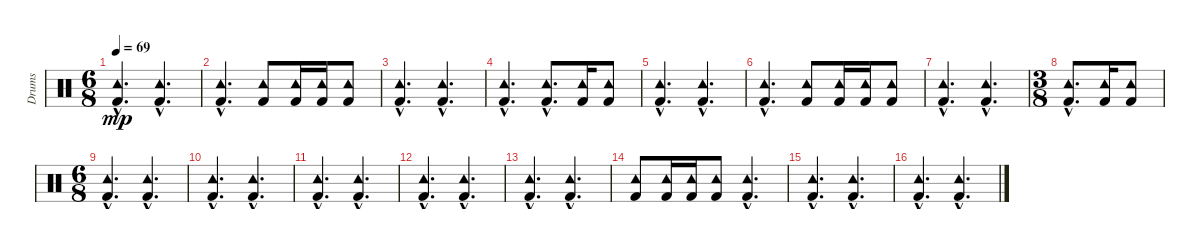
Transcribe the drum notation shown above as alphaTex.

\track ("Drums" "Drums") {instrument percussion}
\staff {score}
\articulation defaults
\ts (6 8)
\tempo 69
\clef neutral
\ks c
("Tambourine (hit)"{hac} "Kick (hit) 2"{hac}).4{d dy mp} ("Tambourine (hit)"{hac} "Kick (hit) 2"{hac}).4{d} |
("Tambourine (hit)"{hac} "Kick (hit) 2"{hac}).4{d} ("Tambourine (hit)" "Kick (hit) 2").8 ("Tambourine (hit)" "Kick (hit) 2").16 ("Tambourine (hit)" "Kick (hit) 2").16 ("Tambourine (hit)" "Kick (hit) 2").8 |
("Tambourine (hit)"{hac} "Kick (hit) 2"{hac}).4{d} ("Tambourine (hit)"{hac} "Kick (hit) 2"{hac}).4{d} |
("Tambourine (hit)"{hac} "Kick (hit) 2"{hac}).4{d} ("Tambourine (hit)"{hac} "Kick (hit) 2"{hac}).8{d} ("Tambourine (hit)" "Kick (hit) 2").16 ("Tambourine (hit)" "Kick (hit) 2").8 |
("Tambourine (hit)"{hac} "Kick (hit) 2"{hac}).4{d} ("Tambourine (hit)"{hac} "Kick (hit) 2"{hac}).4{d} |
("Tambourine (hit)"{hac} "Kick (hit) 2"{hac}).4{d} ("Tambourine (hit)" "Kick (hit) 2").8 ("Tambourine (hit)" "Kick (hit) 2").16 ("Tambourine (hit)" "Kick (hit) 2").16 ("Tambourine (hit)" "Kick (hit) 2").8 |
("Tambourine (hit)"{hac} "Kick (hit) 2"{hac}).4{d} ("Tambourine (hit)"{hac} "Kick (hit) 2"{hac}).4{d} |
\ts (3 8)
("Tambourine (hit)"{hac} "Kick (hit) 2"{hac}).8{d} ("Tambourine (hit)" "Kick (hit) 2").16 ("Tambourine (hit)" "Kick (hit) 2").8 |
\ts (6 8)
("Tambourine (hit)"{hac} "Kick (hit) 2"{hac}).4{d} ("Tambourine (hit)"{hac} "Kick (hit) 2"{hac}).4{d} |
("Tambourine (hit)"{hac} "Kick (hit) 2"{hac}).4{d} ("Tambourine (hit)"{hac} "Kick (hit) 2"{hac}).4{d} |
("Tambourine (hit)"{hac} "Kick (hit) 2"{hac}).4{d} ("Tambourine (hit)"{hac} "Kick (hit) 2"{hac}).4{d} |
("Tambourine (hit)"{hac} "Kick (hit) 2"{hac}).4{d} ("Tambourine (hit)"{hac} "Kick (hit) 2"{hac}).4{d} |
("Tambourine (hit)"{hac} "Kick (hit) 2"{hac}).4{d} ("Tambourine (hit)"{hac} "Kick (hit) 2"{hac}).4{d} |
("Tambourine (hit)" "Kick (hit) 2").8 ("Tambourine (hit)" "Kick (hit) 2").16 ("Tambourine (hit)" "Kick (hit) 2").16 ("Tambourine (hit)" "Kick (hit) 2").8 ("Tambourine (hit)"{hac} "Kick (hit) 2"{hac}).4{d} |
("Tambourine (hit)"{hac} "Kick (hit) 2"{hac}).4{d} ("Tambourine (hit)"{hac} "Kick (hit) 2"{hac}).4{d} |
("Tambourine (hit)"{hac} "Kick (hit) 2"{hac}).4{d} ("Tambourine (hit)"{hac} "Kick (hit) 2"{hac}).4{d}
